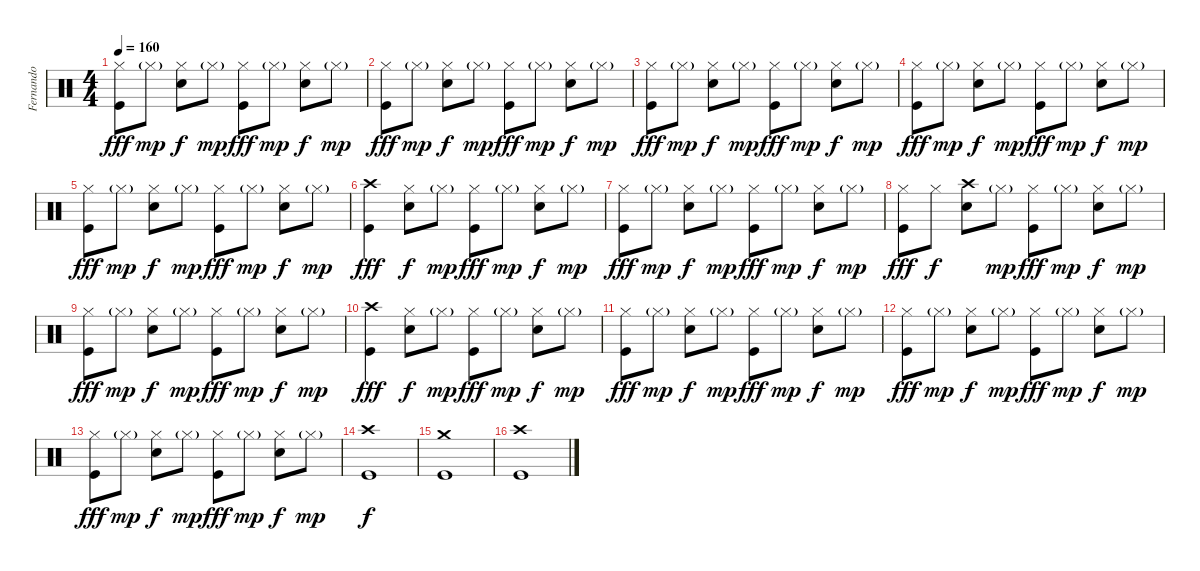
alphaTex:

\track ("Fernando" "Fernando") {instrument percussion}
\staff {score}
\articulation defaults
\ts (4 4)
\tempo 160
\clef neutral
\ks c
("Hi-Hat (closed)" "Kick (hit)").8{dy fff} "Hi-Hat (closed)"{g}.8{dy mp} ("Hi-Hat (closed)" "Snare (hit) 2").8{dy f} "Hi-Hat (closed)"{g}.8{dy mp} ("Hi-Hat (closed)" "Kick (hit)").8{dy fff} "Hi-Hat (closed)"{g}.8{dy mp} ("Hi-Hat (closed)" "Snare (hit) 2").8{dy f} "Hi-Hat (closed)"{g}.8{dy mp} |
("Hi-Hat (closed)" "Kick (hit)").8{dy fff} "Hi-Hat (closed)"{g}.8{dy mp} ("Hi-Hat (closed)" "Snare (hit) 2").8{dy f} "Hi-Hat (closed)"{g}.8{dy mp} ("Hi-Hat (closed)" "Kick (hit)").8{dy fff} "Hi-Hat (closed)"{g}.8{dy mp} ("Hi-Hat (closed)" "Snare (hit) 2").8{dy f} "Hi-Hat (closed)"{g}.8{dy mp} |
("Hi-Hat (closed)" "Kick (hit)").8{dy fff} "Hi-Hat (closed)"{g}.8{dy mp} ("Hi-Hat (closed)" "Snare (hit) 2").8{dy f} "Hi-Hat (closed)"{g}.8{dy mp} ("Hi-Hat (closed)" "Kick (hit)").8{dy fff} "Hi-Hat (closed)"{g}.8{dy mp} ("Hi-Hat (closed)" "Snare (hit) 2").8{dy f} "Hi-Hat (closed)"{g}.8{dy mp} |
("Hi-Hat (closed)" "Kick (hit)").8{dy fff} "Hi-Hat (closed)"{g}.8{dy mp} ("Hi-Hat (closed)" "Snare (hit) 2").8{dy f} "Hi-Hat (closed)"{g}.8{dy mp} ("Hi-Hat (closed)" "Kick (hit)").8{dy fff} "Hi-Hat (closed)"{g}.8{dy mp} ("Hi-Hat (closed)" "Snare (hit) 2").8{dy f} "Hi-Hat (closed)"{g}.8{dy mp} |
("Hi-Hat (closed)" "Kick (hit)").8{dy fff} "Hi-Hat (closed)"{g}.8{dy mp} ("Hi-Hat (closed)" "Snare (hit) 2").8{dy f} "Hi-Hat (closed)"{g}.8{dy mp} ("Hi-Hat (closed)" "Kick (hit)").8{dy fff} "Hi-Hat (closed)"{g}.8{dy mp} ("Hi-Hat (closed)" "Snare (hit) 2").8{dy f} "Hi-Hat (closed)"{g}.8{dy mp} |
("Crash high (hit)" "Kick (hit)").4{dy fff} ("Hi-Hat (closed)" "Snare (hit) 2").8{dy f} "Hi-Hat (closed)"{g}.8{dy mp} ("Hi-Hat (closed)" "Kick (hit)").8{dy fff} "Hi-Hat (closed)"{g}.8{dy mp} ("Hi-Hat (closed)" "Snare (hit) 2").8{dy f} "Hi-Hat (closed)"{g}.8{dy mp} |
("Hi-Hat (closed)" "Kick (hit)").8{dy fff} "Hi-Hat (closed)"{g}.8{dy mp} ("Hi-Hat (closed)" "Snare (hit) 2").8{dy f} "Hi-Hat (closed)"{g}.8{dy mp} ("Hi-Hat (closed)" "Kick (hit)").8{dy fff} "Hi-Hat (closed)"{g}.8{dy mp} ("Hi-Hat (closed)" "Snare (hit) 2").8{dy f} "Hi-Hat (closed)"{g}.8{dy mp} |
("Hi-Hat (closed)" "Kick (hit)").8{dy fff} "Hi-Hat (closed)".8{dy f} ("Crash high (hit)" "Snare (hit) 2").8 "Hi-Hat (closed)"{g}.8{dy mp} ("Hi-Hat (closed)" "Kick (hit)").8{dy fff} "Hi-Hat (closed)"{g}.8{dy mp} ("Hi-Hat (closed)" "Snare (hit) 2").8{dy f} "Hi-Hat (closed)"{g}.8{dy mp} |
("Hi-Hat (closed)" "Kick (hit)").8{dy fff} "Hi-Hat (closed)"{g}.8{dy mp} ("Hi-Hat (closed)" "Snare (hit) 2").8{dy f} "Hi-Hat (closed)"{g}.8{dy mp} ("Hi-Hat (closed)" "Kick (hit)").8{dy fff} "Hi-Hat (closed)"{g}.8{dy mp} ("Hi-Hat (closed)" "Snare (hit) 2").8{dy f} "Hi-Hat (closed)"{g}.8{dy mp} |
("Crash high (hit)" "Kick (hit)").4{dy fff} ("Hi-Hat (closed)" "Snare (hit) 2").8{dy f} "Hi-Hat (closed)"{g}.8{dy mp} ("Hi-Hat (closed)" "Kick (hit)").8{dy fff} "Hi-Hat (closed)"{g}.8{dy mp} ("Hi-Hat (closed)" "Snare (hit) 2").8{dy f} "Hi-Hat (closed)"{g}.8{dy mp} |
("Hi-Hat (closed)" "Kick (hit)").8{dy fff} "Hi-Hat (closed)"{g}.8{dy mp} ("Hi-Hat (closed)" "Snare (hit) 2").8{dy f} "Hi-Hat (closed)"{g}.8{dy mp} ("Hi-Hat (closed)" "Kick (hit)").8{dy fff} "Hi-Hat (closed)"{g}.8{dy mp} ("Hi-Hat (closed)" "Snare (hit) 2").8{dy f} "Hi-Hat (closed)"{g}.8{dy mp} |
("Hi-Hat (closed)" "Kick (hit)").8{dy fff} "Hi-Hat (closed)"{g}.8{dy mp} ("Hi-Hat (closed)" "Snare (hit) 2").8{dy f} "Hi-Hat (closed)"{g}.8{dy mp} ("Hi-Hat (closed)" "Kick (hit)").8{dy fff} "Hi-Hat (closed)"{g}.8{dy mp} ("Hi-Hat (closed)" "Snare (hit) 2").8{dy f} "Hi-Hat (closed)"{g}.8{dy mp} |
("Hi-Hat (closed)" "Kick (hit)").8{dy fff} "Hi-Hat (closed)"{g}.8{dy mp} ("Hi-Hat (closed)" "Snare (hit) 2").8{dy f} "Hi-Hat (closed)"{g}.8{dy mp} ("Hi-Hat (closed)" "Kick (hit)").8{dy fff} "Hi-Hat (closed)"{g}.8{dy mp} ("Hi-Hat (closed)" "Snare (hit) 2").8{dy f} "Hi-Hat (closed)"{g}.8{dy mp} |
("Crash high (hit)" "Kick (hit)").1{dy f} |
("Crash medium (hit)" "Kick (hit)").1 |
("Crash high (hit)" "Kick (hit)").1
